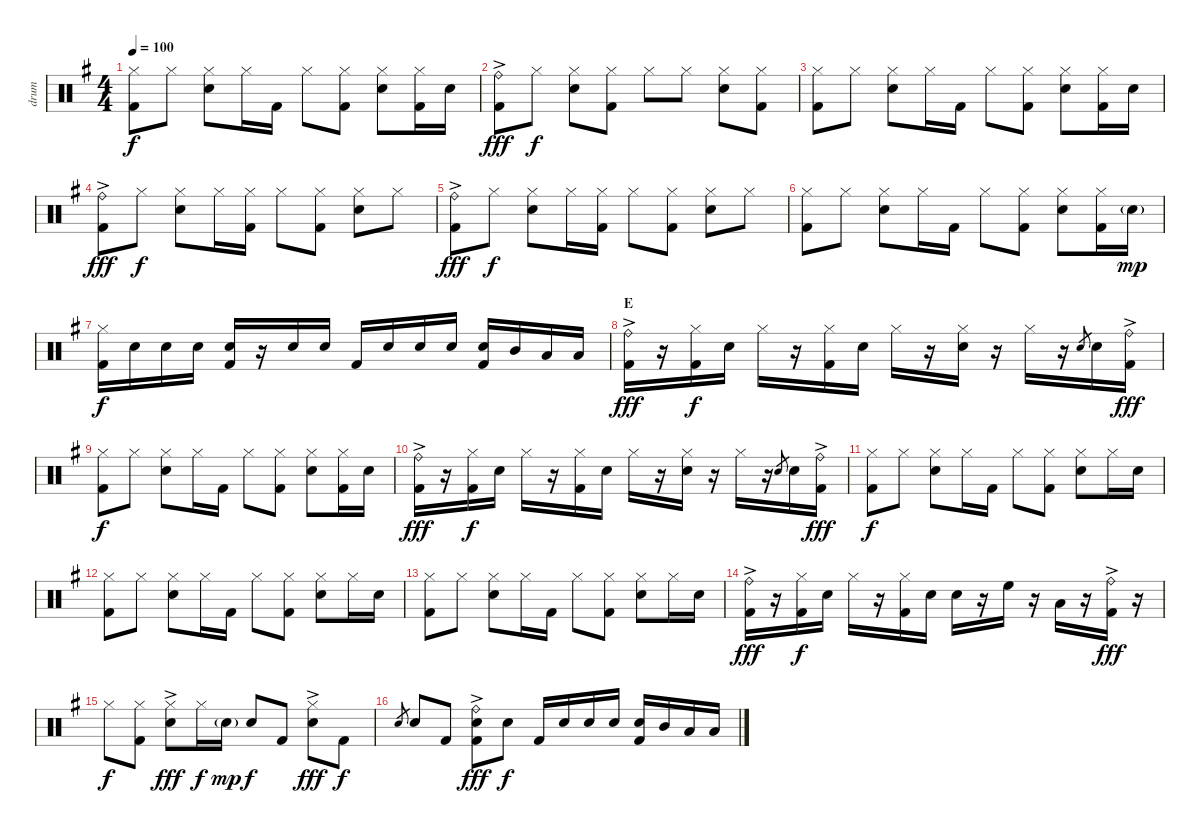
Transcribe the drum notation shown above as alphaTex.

\track ("drum" "drum") {instrument percussion}
\staff {score}
\articulation defaults
\ts (4 4)
\tempo 100
\clef neutral
\ks g
("Hi-Hat (closed)" "Kick (hit) 2").8{dy f} "Hi-Hat (closed)".8 ("Hi-Hat (closed)" "Snare (hit) 2").8 "Hi-Hat (closed)".16 "Kick (hit) 2".16 "Hi-Hat (closed)".8 ("Hi-Hat (closed)" "Kick (hit) 2").8 ("Hi-Hat (closed)" "Snare (hit) 2").8 ("Hi-Hat (closed)" "Kick (hit) 2").16 "Snare (hit) 2".16 |
("Ride (bell)"{ac} "Kick (hit) 2").8{dy fff} "Hi-Hat (closed)".8{dy f} ("Hi-Hat (closed)" "Snare (hit) 2").8 ("Hi-Hat (closed)" "Kick (hit) 2").8 "Hi-Hat (closed)".8 "Hi-Hat (closed)".8 ("Hi-Hat (closed)" "Snare (hit) 2").8 ("Hi-Hat (closed)" "Kick (hit) 2").8 |
("Hi-Hat (closed)" "Kick (hit) 2").8 "Hi-Hat (closed)".8 ("Hi-Hat (closed)" "Snare (hit) 2").8 "Hi-Hat (closed)".16 "Kick (hit) 2".16 "Hi-Hat (closed)".8 ("Hi-Hat (closed)" "Kick (hit) 2").8 ("Hi-Hat (closed)" "Snare (hit) 2").8 ("Hi-Hat (closed)" "Kick (hit) 2").16 "Snare (hit) 2".16 |
("Ride (bell)"{ac} "Kick (hit) 2").8{dy fff} "Hi-Hat (closed)".8{dy f} ("Hi-Hat (closed)" "Snare (hit) 2").8 "Hi-Hat (closed)".16 ("Hi-Hat (closed)" "Kick (hit) 2").16 "Hi-Hat (closed)".8 ("Hi-Hat (closed)" "Kick (hit) 2").8 ("Hi-Hat (closed)" "Snare (hit) 2").8 "Hi-Hat (closed)".8 |
("Ride (bell)"{ac} "Kick (hit) 2").8{dy fff} "Hi-Hat (closed)".8{dy f} ("Hi-Hat (closed)" "Snare (hit) 2").8 "Hi-Hat (closed)".16 ("Hi-Hat (closed)" "Kick (hit) 2").16 "Hi-Hat (closed)".8 ("Hi-Hat (closed)" "Kick (hit) 2").8 ("Hi-Hat (closed)" "Snare (hit) 2").8 "Hi-Hat (closed)".8 |
("Hi-Hat (closed)" "Kick (hit) 2").8 "Hi-Hat (closed)".8 ("Hi-Hat (closed)" "Snare (hit) 2").8 "Hi-Hat (closed)".16 "Kick (hit) 2".16 "Hi-Hat (closed)".8 ("Hi-Hat (closed)" "Kick (hit) 2").8 ("Hi-Hat (closed)" "Snare (hit) 2").8 ("Hi-Hat (closed)" "Kick (hit) 2").16 "Snare (hit) 2"{g}.16{dy mp} |
("Hi-Hat (closed)" "Kick (hit) 2").16{dy f} "Snare (hit) 2".16 "Snare (hit) 2".16 "Snare (hit) 2".16 ("Snare (hit) 2" "Kick (hit) 2").16 r.16 "Snare (hit) 2".16 "Snare (hit) 2".16 "Kick (hit) 2".16 "Snare (hit) 2".16 "Snare (hit) 2".16 "Snare (hit) 2".16 ("Snare (hit) 2" "Kick (hit) 2").16 "Mid Tom (hit)".16 "Low Tom (hit)".16 "Low Tom (hit)".16 |
\section ("" "E")
("Ride (bell)"{ac} "Kick (hit) 2").16{dy fff} r.16 ("Hi-Hat (closed)" "Kick (hit) 2").16{dy f} "Snare (hit) 2".16 "Hi-Hat (closed)".16 r.16 ("Hi-Hat (closed)" "Kick (hit) 2").16 "Snare (hit) 2".16 "Hi-Hat (closed)".16 r.16 ("Hi-Hat (closed)" "Snare (hit) 2").16 r.16 "Hi-Hat (closed)".16 r.16 "Snare (hit) 2".8{gr} "Snare (hit) 2".16 ("Ride (bell)"{ac} "Kick (hit) 2").16{dy fff} |
("Hi-Hat (closed)" "Kick (hit) 2").8{dy f} "Hi-Hat (closed)".8 ("Hi-Hat (closed)" "Snare (hit) 2").8 "Hi-Hat (closed)".16 "Kick (hit) 2".16 "Hi-Hat (closed)".8 ("Hi-Hat (closed)" "Kick (hit) 2").8 ("Hi-Hat (closed)" "Snare (hit) 2").8 ("Hi-Hat (closed)" "Kick (hit) 2").16 "Snare (hit) 2".16 |
("Ride (bell)"{ac} "Kick (hit) 2").16{dy fff} r.16 ("Hi-Hat (closed)" "Kick (hit) 2").16{dy f} "Snare (hit) 2".16 "Hi-Hat (closed)".16 r.16 ("Hi-Hat (closed)" "Kick (hit) 2").16 "Snare (hit) 2".16 "Hi-Hat (closed)".16 r.16 ("Hi-Hat (closed)" "Snare (hit) 2").16 r.16 "Hi-Hat (closed)".16 r.16 "Snare (hit) 2".8{gr} "Snare (hit) 2".16 ("Ride (bell)"{ac} "Kick (hit) 2").16{dy fff} |
("Hi-Hat (closed)" "Kick (hit) 2").8{dy f} "Hi-Hat (closed)".8 ("Hi-Hat (closed)" "Snare (hit) 2").8 "Hi-Hat (closed)".16 "Kick (hit) 2".16 "Hi-Hat (closed)".8 ("Hi-Hat (closed)" "Kick (hit) 2").8 ("Hi-Hat (closed)" "Snare (hit) 2").8 "Hi-Hat (closed)".16 "Snare (hit) 2".16 |
("Hi-Hat (closed)" "Kick (hit) 2").8 "Hi-Hat (closed)".8 ("Hi-Hat (closed)" "Snare (hit) 2").8 "Hi-Hat (closed)".16 "Kick (hit) 2".16 "Hi-Hat (closed)".8 ("Hi-Hat (closed)" "Kick (hit) 2").8 ("Hi-Hat (closed)" "Snare (hit) 2").8 "Hi-Hat (closed)".16 "Snare (hit) 2".16 |
("Hi-Hat (closed)" "Kick (hit) 2").8 "Hi-Hat (closed)".8 ("Hi-Hat (closed)" "Snare (hit) 2").8 "Hi-Hat (closed)".16 "Kick (hit) 2".16 "Hi-Hat (closed)".8 ("Hi-Hat (closed)" "Kick (hit) 2").8 ("Hi-Hat (closed)" "Snare (hit) 2").8 "Hi-Hat (closed)".16 "Snare (hit) 2".16 |
("Ride (bell)"{ac} "Kick (hit) 2").16{dy fff} r.16 ("Hi-Hat (closed)" "Kick (hit) 2").16{dy f} "Snare (hit) 2".16 "Hi-Hat (closed)".16 r.16 ("Hi-Hat (closed)" "Kick (hit) 2").16 "Snare (hit) 2".16 "Snare (hit) 2".16 r.16 "High Floor Tom (hit)".16 r.16 "Low Tom (hit)".16 r.16 ("Ride (bell)"{ac} "Kick (hit) 2").16{dy fff} r.16 |
"Hi-Hat (closed)".8{dy f} ("Hi-Hat (closed)" "Kick (hit) 2").8 ("Hi-Hat (closed)" "Snare (hit) 2"{ac}).8{dy fff} "Hi-Hat (closed)".16{dy f} "Snare (hit) 2"{g}.16{dy mp} "Snare (hit) 2".8{dy f} "Kick (hit) 2".8 ("Hi-Hat (closed)" "Snare (hit) 2"{ac}).8{dy fff} "Kick (hit) 2".8{dy f} |
"Snare (hit) 2".8{gr} "Snare (hit) 2".8 "Kick (hit) 2".8 ("Ride (bell)"{ac} "Snare (hit) 2" "Kick (hit) 2").8{dy fff} "Snare (hit) 2".8{dy f} "Kick (hit) 2".16 "Snare (hit) 2".16 "Snare (hit) 2".16 "Snare (hit) 2".16 ("Snare (hit) 2" "Kick (hit) 2").16 "Mid Tom (hit)".16 "Low Tom (hit)".16 "Low Tom (hit)".16
